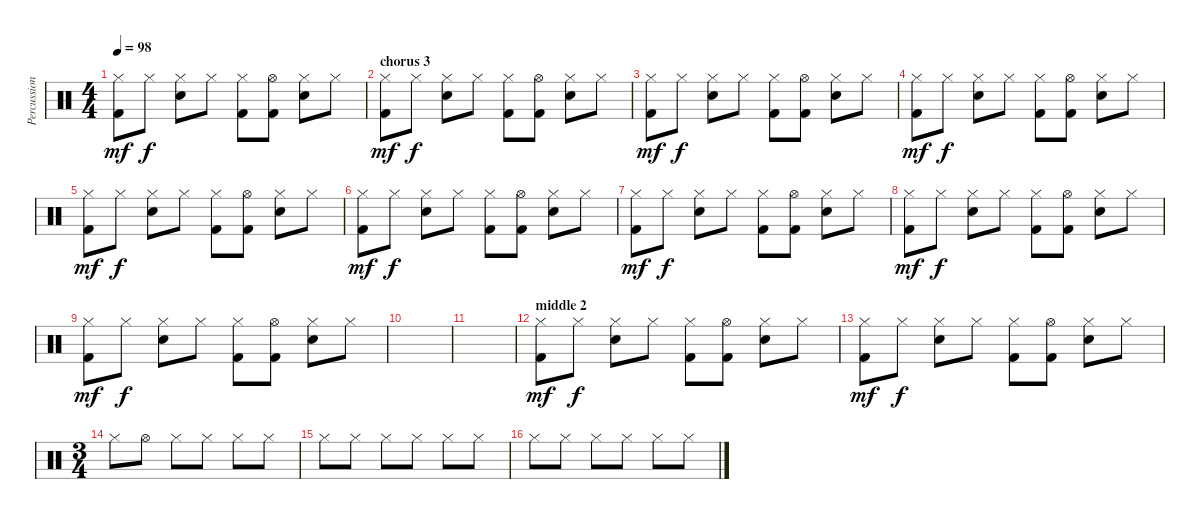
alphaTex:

\track ("Percussion" "Percussion") {instrument percussion}
\staff {score}
\articulation defaults
\ts (4 4)
\tempo 98
\clef neutral
\ks c
("Hi-Hat (closed)" "Kick (hit) 2").8{dy mf} "Hi-Hat (closed)".8{dy f} ("Hi-Hat (closed)" "Snare (hit) 2").8 "Hi-Hat (closed)".8 ("Hi-Hat (closed)" "Kick (hit) 2").8 ("Hi-Hat (open)" "Kick (hit) 2").8 ("Hi-Hat (closed)" "Snare (hit) 2").8 "Hi-Hat (closed)".8 |
\section ("" "chorus 3")
("Hi-Hat (closed)" "Kick (hit) 2").8{dy mf} "Hi-Hat (closed)".8{dy f} ("Hi-Hat (closed)" "Snare (hit) 2").8 "Hi-Hat (closed)".8 ("Hi-Hat (closed)" "Kick (hit) 2").8 ("Hi-Hat (open)" "Kick (hit) 2").8 ("Hi-Hat (closed)" "Snare (hit) 2").8 "Hi-Hat (closed)".8 |
("Hi-Hat (closed)" "Kick (hit) 2").8{dy mf} "Hi-Hat (closed)".8{dy f} ("Hi-Hat (closed)" "Snare (hit) 2").8 "Hi-Hat (closed)".8 ("Hi-Hat (closed)" "Kick (hit) 2").8 ("Hi-Hat (open)" "Kick (hit) 2").8 ("Hi-Hat (closed)" "Snare (hit) 2").8 "Hi-Hat (closed)".8 |
("Hi-Hat (closed)" "Kick (hit) 2").8{dy mf} "Hi-Hat (closed)".8{dy f} ("Hi-Hat (closed)" "Snare (hit) 2").8 "Hi-Hat (closed)".8 ("Hi-Hat (closed)" "Kick (hit) 2").8 ("Hi-Hat (open)" "Kick (hit) 2").8 ("Hi-Hat (closed)" "Snare (hit) 2").8 "Hi-Hat (closed)".8 |
("Hi-Hat (closed)" "Kick (hit) 2").8{dy mf} "Hi-Hat (closed)".8{dy f} ("Hi-Hat (closed)" "Snare (hit) 2").8 "Hi-Hat (closed)".8 ("Hi-Hat (closed)" "Kick (hit) 2").8 ("Hi-Hat (open)" "Kick (hit) 2").8 ("Hi-Hat (closed)" "Snare (hit) 2").8 "Hi-Hat (closed)".8 |
("Hi-Hat (closed)" "Kick (hit) 2").8{dy mf} "Hi-Hat (closed)".8{dy f} ("Hi-Hat (closed)" "Snare (hit) 2").8 "Hi-Hat (closed)".8 ("Hi-Hat (closed)" "Kick (hit) 2").8 ("Hi-Hat (open)" "Kick (hit) 2").8 ("Hi-Hat (closed)" "Snare (hit) 2").8 "Hi-Hat (closed)".8 |
("Hi-Hat (closed)" "Kick (hit) 2").8{dy mf} "Hi-Hat (closed)".8{dy f} ("Hi-Hat (closed)" "Snare (hit) 2").8 "Hi-Hat (closed)".8 ("Hi-Hat (closed)" "Kick (hit) 2").8 ("Hi-Hat (open)" "Kick (hit) 2").8 ("Hi-Hat (closed)" "Snare (hit) 2").8 "Hi-Hat (closed)".8 |
("Hi-Hat (closed)" "Kick (hit) 2").8{dy mf} "Hi-Hat (closed)".8{dy f} ("Hi-Hat (closed)" "Snare (hit) 2").8 "Hi-Hat (closed)".8 ("Hi-Hat (closed)" "Kick (hit) 2").8 ("Hi-Hat (open)" "Kick (hit) 2").8 ("Hi-Hat (closed)" "Snare (hit) 2").8 "Hi-Hat (closed)".8 |
("Hi-Hat (closed)" "Kick (hit) 2").8{dy mf} "Hi-Hat (closed)".8{dy f} ("Hi-Hat (closed)" "Snare (hit) 2").8 "Hi-Hat (closed)".8 ("Hi-Hat (closed)" "Kick (hit) 2").8 ("Hi-Hat (open)" "Kick (hit) 2").8 ("Hi-Hat (closed)" "Snare (hit) 2").8 "Hi-Hat (closed)".8 |
|
|
\section ("" "middle 2")
("Hi-Hat (closed)" "Kick (hit) 2").8{dy mf} "Hi-Hat (closed)".8{dy f} ("Hi-Hat (closed)" "Snare (hit) 2").8 "Hi-Hat (closed)".8 ("Hi-Hat (closed)" "Kick (hit) 2").8 ("Hi-Hat (open)" "Kick (hit) 2").8 ("Hi-Hat (closed)" "Snare (hit) 2").8 "Hi-Hat (closed)".8 |
("Hi-Hat (closed)" "Kick (hit) 2").8{dy mf} "Hi-Hat (closed)".8{dy f} ("Hi-Hat (closed)" "Snare (hit) 2").8 "Hi-Hat (closed)".8 ("Hi-Hat (closed)" "Kick (hit) 2").8 ("Hi-Hat (open)" "Kick (hit) 2").8 ("Hi-Hat (closed)" "Snare (hit) 2").8 "Hi-Hat (closed)".8 |
\ts (3 4)
"Hi-Hat (closed)".8 "Hi-Hat (open)".8 "Hi-Hat (closed)".8 "Hi-Hat (closed)".8 "Hi-Hat (closed)".8 "Hi-Hat (closed)".8 |
"Hi-Hat (closed)".8 "Hi-Hat (closed)".8 "Hi-Hat (closed)".8 "Hi-Hat (closed)".8 "Hi-Hat (closed)".8 "Hi-Hat (closed)".8 |
"Hi-Hat (closed)".8 "Hi-Hat (closed)".8 "Hi-Hat (closed)".8 "Hi-Hat (closed)".8 "Hi-Hat (closed)".8 "Hi-Hat (closed)".8
